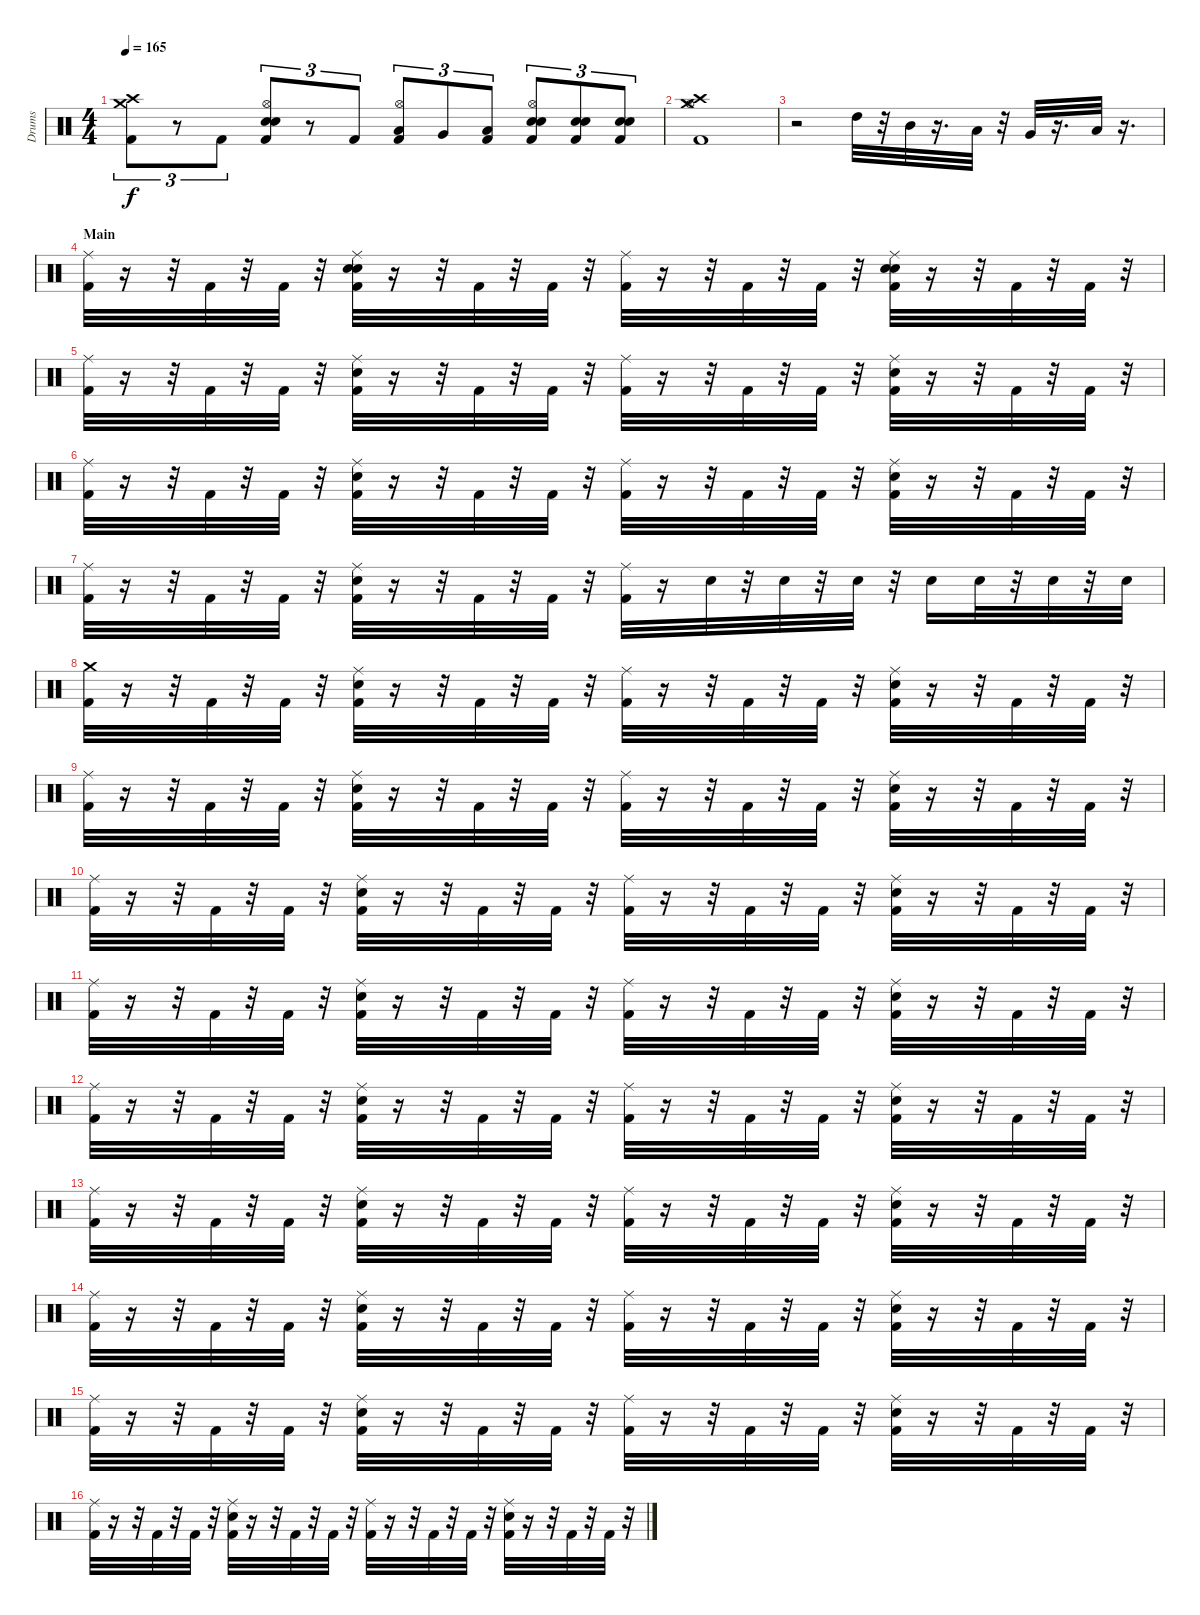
\track ("Drums" "Drums") {instrument percussion}
\staff {score}
\articulation defaults
\ts (4 4)
\tempo 165
\clef neutral
\ks c
("Crash high (hit)" "Crash medium (hit)" "Kick (hit) 2").8{tu (3 2) dy f} r.8{tu (3 2)} "Kick (hit) 2".8{tu (3 2)} ("Hi-Hat (open)" "Electric Snare (hit)" "Snare (hit) 2" "Kick (hit) 2").8{tu (3 2)} r.8{tu (3 2)} "Kick (hit) 2".8{tu (3 2)} ("Hi-Hat (open)" "Low Tom (hit)" "Kick (hit) 2").8{tu (3 2)} "Very Low Tom (hit)".8{tu (3 2)} ("Low Floor Tom (hit)" "Kick (hit) 2").8{tu (3 2)} ("Hi-Hat (open)" "Electric Snare (hit)" "Snare (hit) 2" "Kick (hit) 2").8{tu (3 2)} ("Electric Snare (hit)" "Snare (hit) 2" "Kick (hit) 2").8{tu (3 2)} ("Electric Snare (hit)" "Snare (hit) 2" "Kick (hit) 2").8{tu (3 2)} |
("Crash medium (hit)" "Crash high (hit)" "Hi-Hat (open)" "Kick (hit) 2").1 |
r.2 "High Tom (hit)".32 r.32 "Mid Tom (hit)".32 r.16{d} "Low Tom (hit)".32 r.32 "Very Low Tom (hit)".32 r.16{d} "Low Floor Tom (hit)".32 r.16{d} |
\section ("" "Main")
("Kick (hit) 2" "Ride (middle)").32 r.16 r.32 "Kick (hit) 2".32 r.32 "Kick (hit) 2".32 r.32 ("Ride (middle)" "Snare (hit) 2" "Electric Snare (hit)" "Kick (hit) 2").32 r.16 r.32 "Kick (hit) 2".32 r.32 "Kick (hit) 2".32 r.32 ("Kick (hit) 2" "Ride (middle)").32 r.16 r.32 "Kick (hit) 2".32 r.32 "Kick (hit) 2".32 r.32 ("Ride (middle)" "Snare (hit) 2" "Electric Snare (hit)" "Kick (hit) 2").32 r.16 r.32 "Kick (hit) 2".32 r.32 "Kick (hit) 2".32 r.32 |
("Ride (middle)" "Kick (hit) 2").32 r.16 r.32 "Kick (hit) 2".32 r.32 "Kick (hit) 2".32 r.32 ("Ride (middle)" "Snare (hit) 2" "Kick (hit) 2").32 r.16 r.32 "Kick (hit) 2".32 r.32 "Kick (hit) 2".32 r.32 ("Ride (middle)" "Kick (hit) 2").32 r.16 r.32 "Kick (hit) 2".32 r.32 "Kick (hit) 2".32 r.32 ("Ride (middle)" "Snare (hit) 2" "Kick (hit) 2").32 r.16 r.32 "Kick (hit) 2".32 r.32 "Kick (hit) 2".32 r.32 |
("Kick (hit) 2" "Ride (middle)").32 r.16 r.32 "Kick (hit) 2".32 r.32 "Kick (hit) 2".32 r.32 ("Ride (middle)" "Snare (hit) 2" "Kick (hit) 2").32 r.16 r.32 "Kick (hit) 2".32 r.32 "Kick (hit) 2".32 r.32 ("Kick (hit) 2" "Ride (middle)").32 r.16 r.32 "Kick (hit) 2".32 r.32 "Kick (hit) 2".32 r.32 ("Snare (hit) 2" "Ride (middle)" "Kick (hit) 2").32 r.16 r.32 "Kick (hit) 2".32 r.32 "Kick (hit) 2".32 r.32 |
("Ride (middle)" "Kick (hit) 2").32 r.16 r.32 "Kick (hit) 2".32 r.32 "Kick (hit) 2".32 r.32 ("Ride (middle)" "Snare (hit) 2" "Kick (hit) 2").32 r.16 r.32 "Kick (hit) 2".32 r.32 "Kick (hit) 2".32 r.32 ("Ride (middle)" "Kick (hit) 2").32 r.16 "Snare (hit) 2".32 r.32 "Snare (hit) 2".32 r.32 "Snare (hit) 2".32 r.32 "Snare (hit) 2".16 "Snare (hit) 2".32 r.32 "Snare (hit) 2".32 r.32 "Snare (hit) 2".32 |
("Crash medium (hit)" "Kick (hit) 2").32 r.16 r.32 "Kick (hit) 2".32 r.32 "Kick (hit) 2".32 r.32 ("Ride (middle)" "Snare (hit) 2" "Kick (hit) 2").32 r.16 r.32 "Kick (hit) 2".32 r.32 "Kick (hit) 2".32 r.32 ("Ride (middle)" "Kick (hit) 2").32 r.16 r.32 "Kick (hit) 2".32 r.32 "Kick (hit) 2".32 r.32 ("Ride (middle)" "Snare (hit) 2" "Kick (hit) 2").32 r.16 r.32 "Kick (hit) 2".32 r.32 "Kick (hit) 2".32 r.32 |
("Ride (middle)" "Kick (hit) 2").32 r.16 r.32 "Kick (hit) 2".32 r.32 "Kick (hit) 2".32 r.32 ("Ride (middle)" "Snare (hit) 2" "Kick (hit) 2").32 r.16 r.32 "Kick (hit) 2".32 r.32 "Kick (hit) 2".32 r.32 ("Ride (middle)" "Kick (hit) 2").32 r.16 r.32 "Kick (hit) 2".32 r.32 "Kick (hit) 2".32 r.32 ("Ride (middle)" "Snare (hit) 2" "Kick (hit) 2").32 r.16 r.32 "Kick (hit) 2".32 r.32 "Kick (hit) 2".32 r.32 |
("Kick (hit) 2" "Ride (middle)").32 r.16 r.32 "Kick (hit) 2".32 r.32 "Kick (hit) 2".32 r.32 ("Ride (middle)" "Snare (hit) 2" "Kick (hit) 2").32 r.16 r.32 "Kick (hit) 2".32 r.32 "Kick (hit) 2".32 r.32 ("Kick (hit) 2" "Ride (middle)").32 r.16 r.32 "Kick (hit) 2".32 r.32 "Kick (hit) 2".32 r.32 ("Snare (hit) 2" "Ride (middle)" "Kick (hit) 2").32 r.16 r.32 "Kick (hit) 2".32 r.32 "Kick (hit) 2".32 r.32 |
("Ride (middle)" "Kick (hit) 2").32 r.16 r.32 "Kick (hit) 2".32 r.32 "Kick (hit) 2".32 r.32 ("Ride (middle)" "Snare (hit) 2" "Kick (hit) 2").32 r.16 r.32 "Kick (hit) 2".32 r.32 "Kick (hit) 2".32 r.32 ("Ride (middle)" "Kick (hit) 2").32 r.16 r.32 "Kick (hit) 2".32 r.32 "Kick (hit) 2".32 r.32 ("Ride (middle)" "Snare (hit) 2" "Kick (hit) 2").32 r.16 r.32 "Kick (hit) 2".32 r.32 "Kick (hit) 2".32 r.32 |
("Kick (hit) 2" "Ride (middle)").32 r.16 r.32 "Kick (hit) 2".32 r.32 "Kick (hit) 2".32 r.32 ("Ride (middle)" "Snare (hit) 2" "Kick (hit) 2").32 r.16 r.32 "Kick (hit) 2".32 r.32 "Kick (hit) 2".32 r.32 ("Kick (hit) 2" "Ride (middle)").32 r.16 r.32 "Kick (hit) 2".32 r.32 "Kick (hit) 2".32 r.32 ("Snare (hit) 2" "Ride (middle)" "Kick (hit) 2").32 r.16 r.32 "Kick (hit) 2".32 r.32 "Kick (hit) 2".32 r.32 |
("Ride (middle)" "Kick (hit) 2").32 r.16 r.32 "Kick (hit) 2".32 r.32 "Kick (hit) 2".32 r.32 ("Ride (middle)" "Snare (hit) 2" "Kick (hit) 2").32 r.16 r.32 "Kick (hit) 2".32 r.32 "Kick (hit) 2".32 r.32 ("Ride (middle)" "Kick (hit) 2").32 r.16 r.32 "Kick (hit) 2".32 r.32 "Kick (hit) 2".32 r.32 ("Ride (middle)" "Snare (hit) 2" "Kick (hit) 2").32 r.16 r.32 "Kick (hit) 2".32 r.32 "Kick (hit) 2".32 r.32 |
("Kick (hit) 2" "Ride (middle)").32 r.16 r.32 "Kick (hit) 2".32 r.32 "Kick (hit) 2".32 r.32 ("Ride (middle)" "Snare (hit) 2" "Kick (hit) 2").32 r.16 r.32 "Kick (hit) 2".32 r.32 "Kick (hit) 2".32 r.32 ("Kick (hit) 2" "Ride (middle)").32 r.16 r.32 "Kick (hit) 2".32 r.32 "Kick (hit) 2".32 r.32 ("Snare (hit) 2" "Ride (middle)" "Kick (hit) 2").32 r.16 r.32 "Kick (hit) 2".32 r.32 "Kick (hit) 2".32 r.32 |
("Ride (middle)" "Kick (hit) 2").32 r.16 r.32 "Kick (hit) 2".32 r.32 "Kick (hit) 2".32 r.32 ("Ride (middle)" "Snare (hit) 2" "Kick (hit) 2").32 r.16 r.32 "Kick (hit) 2".32 r.32 "Kick (hit) 2".32 r.32 ("Ride (middle)" "Kick (hit) 2").32 r.16 r.32 "Kick (hit) 2".32 r.32 "Kick (hit) 2".32 r.32 ("Ride (middle)" "Snare (hit) 2" "Kick (hit) 2").32 r.16 r.32 "Kick (hit) 2".32 r.32 "Kick (hit) 2".32 r.32 |
("Ride (middle)" "Kick (hit) 2").32 r.16 r.32 "Kick (hit) 2".32 r.32 "Kick (hit) 2".32 r.32 ("Ride (middle)" "Snare (hit) 2" "Kick (hit) 2").32 r.16 r.32 "Kick (hit) 2".32 r.32 "Kick (hit) 2".32 r.32 ("Ride (middle)" "Kick (hit) 2").32 r.16 r.32 "Kick (hit) 2".32 r.32 "Kick (hit) 2".32 r.32 ("Ride (middle)" "Snare (hit) 2" "Kick (hit) 2").32 r.16 r.32 "Kick (hit) 2".32 r.32 "Kick (hit) 2".32 r.32
